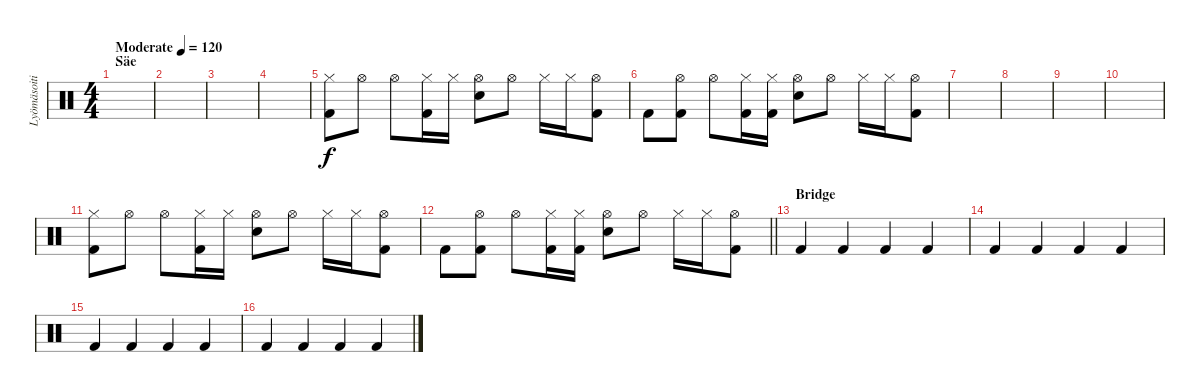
\track ("Lyömäsoitin" "Lyömäsoiti") {instrument percussion}
\staff {score}
\articulation defaults
\ts (4 4)
\section ("" "Säe")
\tempo (120 "Moderate")
\clef neutral
\ks c
|
|
|
|
("Hi-Hat (closed)" "Kick (hit) 2").8 "Hi-Hat (open)".8 "Hi-Hat (open)".8 ("Hi-Hat (closed)" "Kick (hit) 2").16 "Hi-Hat (closed)".16 ("Hi-Hat (open)" "Snare (hit) 2").8 "Hi-Hat (open)".8 "Hi-Hat (closed)".16 "Hi-Hat (closed)".16 ("Hi-Hat (open)" "Kick (hit) 2").8 |
"Kick (hit) 2".8 ("Hi-Hat (open)" "Kick (hit) 2").8 "Hi-Hat (open)".8 ("Hi-Hat (closed)" "Kick (hit) 2").16 ("Hi-Hat (closed)" "Kick (hit) 2").16 ("Hi-Hat (open)" "Snare (hit) 2").8 "Hi-Hat (open)".8 "Hi-Hat (closed)".16 "Hi-Hat (closed)".16 ("Hi-Hat (open)" "Kick (hit) 2").8 |
|
|
|
|
("Hi-Hat (closed)" "Kick (hit) 2").8 "Hi-Hat (open)".8 "Hi-Hat (open)".8 ("Hi-Hat (closed)" "Kick (hit) 2").16 "Hi-Hat (closed)".16 ("Hi-Hat (open)" "Snare (hit) 2").8 "Hi-Hat (open)".8 "Hi-Hat (closed)".16 "Hi-Hat (closed)".16 ("Hi-Hat (open)" "Kick (hit) 2").8 |
\barLineRight lightlight "Kick (hit) 2".8
("Hi-Hat (open)" "Kick (hit) 2").8 "Hi-Hat (open)".8 ("Hi-Hat (closed)" "Kick (hit) 2").16 ("Hi-Hat (closed)" "Kick (hit) 2").16 ("Hi-Hat (open)" "Snare (hit) 2").8 "Hi-Hat (open)".8 "Hi-Hat (closed)".16 "Hi-Hat (closed)".16 ("Hi-Hat (open)" "Kick (hit) 2").8 |
\section ("" "Bridge")
"Kick (hit) 2".4 "Kick (hit) 2".4 "Kick (hit) 2".4 "Kick (hit) 2".4 |
"Kick (hit) 2".4 "Kick (hit) 2".4 "Kick (hit) 2".4 "Kick (hit) 2".4 |
"Kick (hit) 2".4 "Kick (hit) 2".4 "Kick (hit) 2".4 "Kick (hit) 2".4 |
"Kick (hit) 2".4 "Kick (hit) 2".4 "Kick (hit) 2".4 "Kick (hit) 2".4
